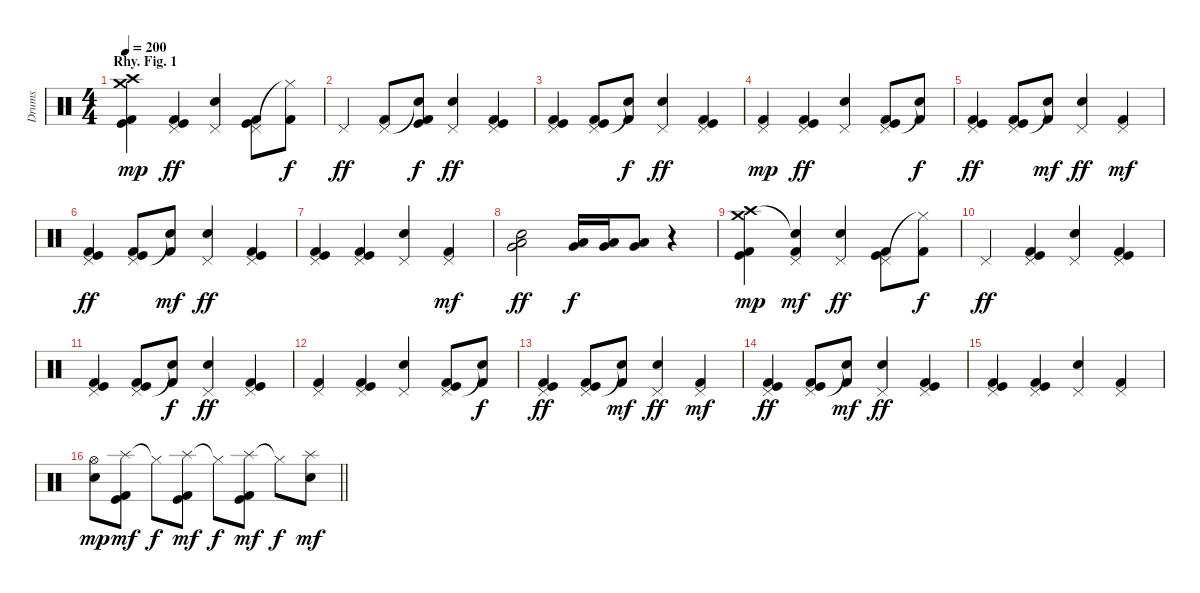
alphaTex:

\track ("Drums" "Drums") {instrument percussion}
\staff {score}
\articulation defaults
\ts (4 4)
\section ("" "Rhy. Fig. 1")
\tempo 200
\clef neutral
\ks c
("Crash high (hit)" "Crash medium (hit)" "Kick (hit)" "Kick (hit) 2").4{dy mp} ("Pedal Hi-Hat (hit)" "Kick (hit)" "Kick (hit) 2").4{dy ff} ("Pedal Hi-Hat (hit)" "Snare (hit) 2").4 ("Pedal Hi-Hat (hit)" "Kick (hit)" "Kick (hit) 2").8 ("Hi-Hat (closed)"{t} "Kick (hit) 2").8{dy f} |
"Pedal Hi-Hat (hit)".4{dy ff} ("Pedal Hi-Hat (hit)" "Kick (hit) 2").8 ("Snare (hit)"{t} "Kick (hit)" "Kick (hit) 2").8{dy f} ("Pedal Hi-Hat (hit)" "Snare (hit) 2").4{dy ff} ("Pedal Hi-Hat (hit)" "Kick (hit)" "Kick (hit) 2").4 |
("Pedal Hi-Hat (hit)" "Kick (hit)" "Kick (hit) 2").4 ("Pedal Hi-Hat (hit)" "Kick (hit)" "Kick (hit) 2").8 ("Snare (hit)"{t} "Kick (hit) 2").8{dy f} ("Pedal Hi-Hat (hit)" "Snare (hit) 2").4{dy ff} ("Pedal Hi-Hat (hit)" "Kick (hit)" "Kick (hit) 2").4 |
("Pedal Hi-Hat (hit)" "Kick (hit) 2").4{dy mp} ("Pedal Hi-Hat (hit)" "Kick (hit)" "Kick (hit) 2").4{dy ff} ("Pedal Hi-Hat (hit)" "Snare (hit) 2").4 ("Pedal Hi-Hat (hit)" "Kick (hit)" "Kick (hit) 2").8 ("Snare (hit)"{t} "Kick (hit) 2").8{dy f} |
("Pedal Hi-Hat (hit)" "Kick (hit)" "Kick (hit) 2").4{dy ff} ("Pedal Hi-Hat (hit)" "Kick (hit)" "Kick (hit) 2").8 ("Snare (hit)"{t} "Kick (hit) 2").8{dy mf} ("Pedal Hi-Hat (hit)" "Snare (hit) 2").4{dy ff} ("Pedal Hi-Hat (hit)" "Kick (hit) 2").4{dy mf} |
("Pedal Hi-Hat (hit)" "Kick (hit)" "Kick (hit) 2").4{dy ff} ("Pedal Hi-Hat (hit)" "Kick (hit)" "Kick (hit) 2").8 ("Snare (hit)"{t} "Kick (hit) 2").8{dy mf} ("Pedal Hi-Hat (hit)" "Snare (hit) 2").4{dy ff} ("Pedal Hi-Hat (hit)" "Kick (hit)" "Kick (hit) 2").4 |
("Pedal Hi-Hat (hit)" "Kick (hit)" "Kick (hit) 2").4 ("Pedal Hi-Hat (hit)" "Kick (hit)" "Kick (hit) 2").4 ("Pedal Hi-Hat (hit)" "Snare (hit) 2").4 ("Pedal Hi-Hat (hit)" "Kick (hit) 2").4{dy mf} |
("Snare (hit) 2" "Very Low Tom (hit)" "Low Floor Tom (hit)").2{dy ff} ("Very Low Tom (hit)" "Low Floor Tom (hit)").16{dy f} ("Very Low Tom (hit)" "Low Floor Tom (hit)").16 ("Very Low Tom (hit)" "Low Floor Tom (hit)").8 r.4 |
("Crash high (hit)" "Crash medium (hit)" "Kick (hit)" "Kick (hit) 2").4{dy mp} ("Snare (hit)"{t} "Pedal Hi-Hat (hit)" "Kick (hit) 2").4{dy mf} ("Pedal Hi-Hat (hit)" "Snare (hit) 2").4{dy ff} ("Pedal Hi-Hat (hit)" "Kick (hit)" "Kick (hit) 2").8 ("Hi-Hat (closed)"{t} "Kick (hit) 2").8{dy f} |
"Pedal Hi-Hat (hit)".4{dy ff} ("Pedal Hi-Hat (hit)" "Kick (hit)" "Kick (hit) 2").4 ("Pedal Hi-Hat (hit)" "Snare (hit) 2").4 ("Pedal Hi-Hat (hit)" "Kick (hit)" "Kick (hit) 2").4 |
("Pedal Hi-Hat (hit)" "Kick (hit)" "Kick (hit) 2").4 ("Pedal Hi-Hat (hit)" "Kick (hit)" "Kick (hit) 2").8 ("Snare (hit)"{t} "Kick (hit) 2").8{dy f} ("Pedal Hi-Hat (hit)" "Snare (hit) 2").4{dy ff} ("Pedal Hi-Hat (hit)" "Kick (hit)" "Kick (hit) 2").4 |
("Pedal Hi-Hat (hit)" "Kick (hit) 2").4 ("Pedal Hi-Hat (hit)" "Kick (hit)" "Kick (hit) 2").4 ("Pedal Hi-Hat (hit)" "Snare (hit) 2").4 ("Pedal Hi-Hat (hit)" "Kick (hit)" "Kick (hit) 2").8 ("Snare (hit)"{t} "Kick (hit) 2").8{dy f} |
("Pedal Hi-Hat (hit)" "Kick (hit)" "Kick (hit) 2").4{dy ff} ("Pedal Hi-Hat (hit)" "Kick (hit)" "Kick (hit) 2").8 ("Snare (hit)"{t} "Kick (hit) 2").8{dy mf} ("Pedal Hi-Hat (hit)" "Snare (hit) 2").4{dy ff} ("Pedal Hi-Hat (hit)" "Kick (hit) 2").4{dy mf} |
("Pedal Hi-Hat (hit)" "Kick (hit)" "Kick (hit) 2").4{dy ff} ("Pedal Hi-Hat (hit)" "Kick (hit)" "Kick (hit) 2").8 ("Snare (hit)"{t} "Kick (hit) 2").8{dy mf} ("Pedal Hi-Hat (hit)" "Snare (hit) 2").4{dy ff} ("Pedal Hi-Hat (hit)" "Kick (hit)" "Kick (hit) 2").4 |
("Pedal Hi-Hat (hit)" "Kick (hit)" "Kick (hit) 2").4 ("Pedal Hi-Hat (hit)" "Kick (hit)" "Kick (hit) 2").4 ("Pedal Hi-Hat (hit)" "Snare (hit) 2").4 ("Pedal Hi-Hat (hit)" "Kick (hit) 2").4 |
\barLineRight lightlight
("Hi-Hat (open)" "Snare (hit) 2").8{dy mp} ("Splash (hit)" "Kick (hit)" "Kick (hit) 2").8{dy mf} "Hi-Hat (closed)"{t}.8{dy f} ("Splash (hit)" "Kick (hit)" "Kick (hit) 2").8{dy mf} "Hi-Hat (closed)"{t}.8{dy f} ("Splash (hit)" "Kick (hit)" "Kick (hit) 2").8{dy mf} "Hi-Hat (closed)"{t}.8{dy f} ("Splash (hit)" "Snare (hit) 2").8{dy mf}
